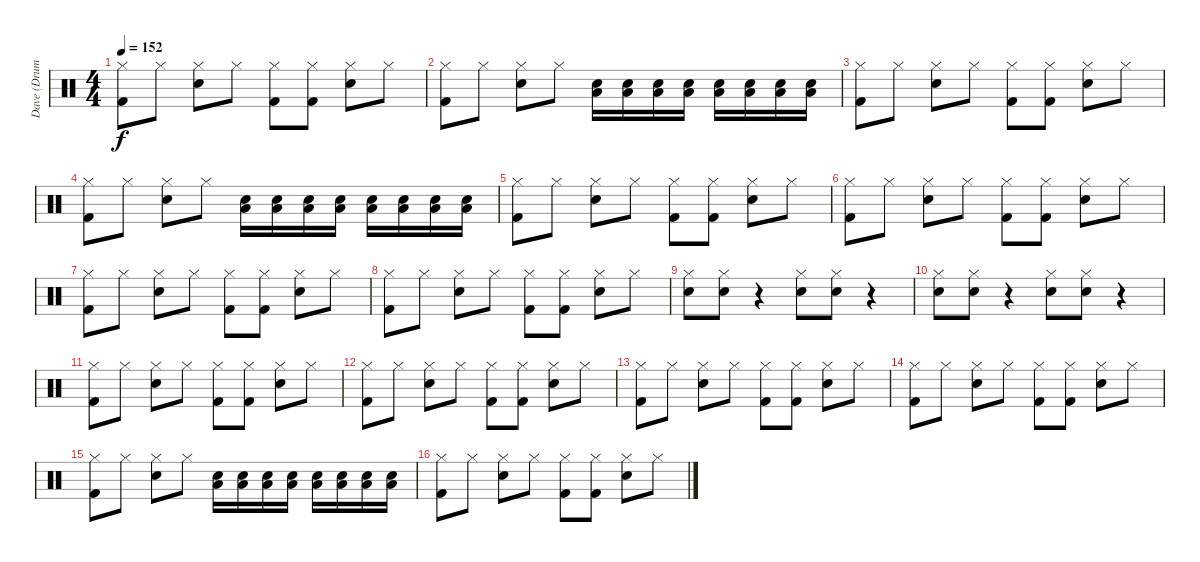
\track ("Dave (Drums)" "Dave (Drum") {instrument percussion}
\staff {score}
\articulation defaults
\ts (4 4)
\tempo 152
\clef neutral
\ks c
("Hi-Hat (closed)" "Kick (hit) 2").8{dy f} "Hi-Hat (closed)".8 ("Hi-Hat (closed)" "Snare (hit) 2").8 "Hi-Hat (closed)".8 ("Hi-Hat (closed)" "Kick (hit) 2").8 ("Hi-Hat (closed)" "Kick (hit) 2").8 ("Hi-Hat (closed)" "Snare (hit) 2").8 "Hi-Hat (closed)".8 |
("Hi-Hat (closed)" "Kick (hit) 2").8 "Hi-Hat (closed)".8 ("Hi-Hat (closed)" "Snare (hit) 2").8 "Hi-Hat (closed)".8 ("Low Tom (hit)" "Snare (hit) 2").16 ("Low Tom (hit)" "Snare (hit) 2").16 ("Low Tom (hit)" "Snare (hit) 2").16 ("Low Tom (hit)" "Snare (hit) 2").16 ("Low Tom (hit)" "Snare (hit) 2").16 ("Low Tom (hit)" "Snare (hit) 2").16 ("Low Tom (hit)" "Snare (hit) 2").16 ("Low Tom (hit)" "Snare (hit) 2").16 |
("Hi-Hat (closed)" "Kick (hit) 2").8 "Hi-Hat (closed)".8 ("Hi-Hat (closed)" "Snare (hit) 2").8 "Hi-Hat (closed)".8 ("Hi-Hat (closed)" "Kick (hit) 2").8 ("Hi-Hat (closed)" "Kick (hit) 2").8 ("Hi-Hat (closed)" "Snare (hit) 2").8 "Hi-Hat (closed)".8 |
("Hi-Hat (closed)" "Kick (hit) 2").8 "Hi-Hat (closed)".8 ("Hi-Hat (closed)" "Snare (hit) 2").8 "Hi-Hat (closed)".8 ("Low Tom (hit)" "Snare (hit) 2").16 ("Low Tom (hit)" "Snare (hit) 2").16 ("Low Tom (hit)" "Snare (hit) 2").16 ("Low Tom (hit)" "Snare (hit) 2").16 ("Low Tom (hit)" "Snare (hit) 2").16 ("Low Tom (hit)" "Snare (hit) 2").16 ("Low Tom (hit)" "Snare (hit) 2").16 ("Low Tom (hit)" "Snare (hit) 2").16 |
("Hi-Hat (closed)" "Kick (hit) 2").8 "Hi-Hat (closed)".8 ("Hi-Hat (closed)" "Snare (hit) 2").8 "Hi-Hat (closed)".8 ("Hi-Hat (closed)" "Kick (hit) 2").8 ("Hi-Hat (closed)" "Kick (hit) 2").8 ("Hi-Hat (closed)" "Snare (hit) 2").8 "Hi-Hat (closed)".8 |
("Hi-Hat (closed)" "Kick (hit) 2").8 "Hi-Hat (closed)".8 ("Hi-Hat (closed)" "Snare (hit) 2").8 "Hi-Hat (closed)".8 ("Hi-Hat (closed)" "Kick (hit) 2").8 ("Hi-Hat (closed)" "Kick (hit) 2").8 ("Hi-Hat (closed)" "Snare (hit) 2").8 "Hi-Hat (closed)".8 |
("Hi-Hat (closed)" "Kick (hit) 2").8 "Hi-Hat (closed)".8 ("Hi-Hat (closed)" "Snare (hit) 2").8 "Hi-Hat (closed)".8 ("Hi-Hat (closed)" "Kick (hit) 2").8 ("Hi-Hat (closed)" "Kick (hit) 2").8 ("Hi-Hat (closed)" "Snare (hit) 2").8 "Hi-Hat (closed)".8 |
("Hi-Hat (closed)" "Kick (hit) 2").8 "Hi-Hat (closed)".8 ("Hi-Hat (closed)" "Snare (hit) 2").8 "Hi-Hat (closed)".8 ("Hi-Hat (closed)" "Kick (hit) 2").8 ("Hi-Hat (closed)" "Kick (hit) 2").8 ("Hi-Hat (closed)" "Snare (hit) 2").8 "Hi-Hat (closed)".8 |
("Hi-Hat (closed)" "Snare (hit) 2").8 ("Hi-Hat (closed)" "Snare (hit) 2").8 r.4 ("Hi-Hat (closed)" "Snare (hit) 2").8 ("Hi-Hat (closed)" "Snare (hit) 2").8 r.4 |
("Hi-Hat (closed)" "Snare (hit) 2").8 ("Hi-Hat (closed)" "Snare (hit) 2").8 r.4 ("Hi-Hat (closed)" "Snare (hit) 2").8 ("Hi-Hat (closed)" "Snare (hit) 2").8 r.4 |
("Hi-Hat (closed)" "Kick (hit) 2").8 "Hi-Hat (closed)".8 ("Hi-Hat (closed)" "Snare (hit) 2").8 "Hi-Hat (closed)".8 ("Hi-Hat (closed)" "Kick (hit) 2").8 ("Hi-Hat (closed)" "Kick (hit) 2").8 ("Hi-Hat (closed)" "Snare (hit) 2").8 "Hi-Hat (closed)".8 |
("Hi-Hat (closed)" "Kick (hit) 2").8 "Hi-Hat (closed)".8 ("Hi-Hat (closed)" "Snare (hit) 2").8 "Hi-Hat (closed)".8 ("Hi-Hat (closed)" "Kick (hit) 2").8 ("Hi-Hat (closed)" "Kick (hit) 2").8 ("Hi-Hat (closed)" "Snare (hit) 2").8 "Hi-Hat (closed)".8 |
("Hi-Hat (closed)" "Kick (hit) 2").8 "Hi-Hat (closed)".8 ("Hi-Hat (closed)" "Snare (hit) 2").8 "Hi-Hat (closed)".8 ("Hi-Hat (closed)" "Kick (hit) 2").8 ("Hi-Hat (closed)" "Kick (hit) 2").8 ("Hi-Hat (closed)" "Snare (hit) 2").8 "Hi-Hat (closed)".8 |
("Hi-Hat (closed)" "Kick (hit) 2").8 "Hi-Hat (closed)".8 ("Hi-Hat (closed)" "Snare (hit) 2").8 "Hi-Hat (closed)".8 ("Hi-Hat (closed)" "Kick (hit) 2").8 ("Hi-Hat (closed)" "Kick (hit) 2").8 ("Hi-Hat (closed)" "Snare (hit) 2").8 "Hi-Hat (closed)".8 |
("Hi-Hat (closed)" "Kick (hit) 2").8 "Hi-Hat (closed)".8 ("Hi-Hat (closed)" "Snare (hit) 2").8 "Hi-Hat (closed)".8 ("Low Tom (hit)" "Snare (hit) 2").16 ("Low Tom (hit)" "Snare (hit) 2").16 ("Low Tom (hit)" "Snare (hit) 2").16 ("Low Tom (hit)" "Snare (hit) 2").16 ("Low Tom (hit)" "Snare (hit) 2").16 ("Low Tom (hit)" "Snare (hit) 2").16 ("Low Tom (hit)" "Snare (hit) 2").16 ("Low Tom (hit)" "Snare (hit) 2").16 |
("Hi-Hat (closed)" "Kick (hit) 2").8 "Hi-Hat (closed)".8 ("Hi-Hat (closed)" "Snare (hit) 2").8 "Hi-Hat (closed)".8 ("Hi-Hat (closed)" "Kick (hit) 2").8 ("Hi-Hat (closed)" "Kick (hit) 2").8 ("Hi-Hat (closed)" "Snare (hit) 2").8 "Hi-Hat (closed)".8
